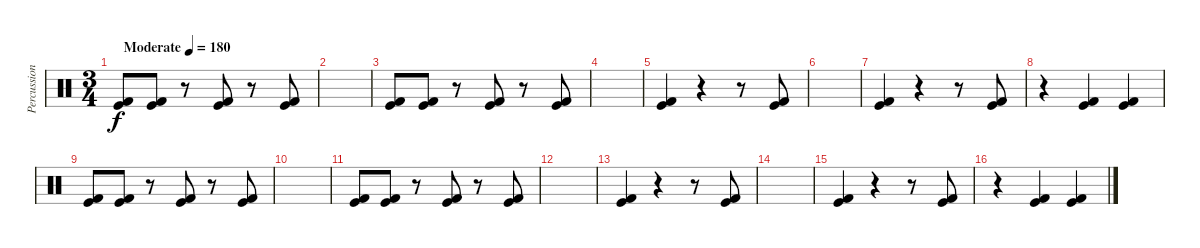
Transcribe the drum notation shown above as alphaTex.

\track ("Percussion" "Percussion") {instrument percussion}
\staff {score}
\articulation defaults
\ts (3 4)
\tempo (180 "Moderate")
\clef neutral
\ks c
("Kick (hit) 2" "Kick (hit)").8{dy f} ("Kick (hit) 2" "Kick (hit)").8 r.8 ("Kick (hit) 2" "Kick (hit)").8 r.8 ("Kick (hit) 2" "Kick (hit)").8 |
|
("Kick (hit) 2" "Kick (hit)").8 ("Kick (hit) 2" "Kick (hit)").8 r.8 ("Kick (hit) 2" "Kick (hit)").8 r.8 ("Kick (hit) 2" "Kick (hit)").8 |
|
("Kick (hit) 2" "Kick (hit)").4 r.4 r.8 ("Kick (hit) 2" "Kick (hit)").8 |
|
("Kick (hit) 2" "Kick (hit)").4 r.4 r.8 ("Kick (hit) 2" "Kick (hit)").8 |
r.4 ("Kick (hit) 2" "Kick (hit)").4 ("Kick (hit) 2" "Kick (hit)").4 |
("Kick (hit) 2" "Kick (hit)").8 ("Kick (hit) 2" "Kick (hit)").8 r.8 ("Kick (hit) 2" "Kick (hit)").8 r.8 ("Kick (hit) 2" "Kick (hit)").8 |
|
("Kick (hit) 2" "Kick (hit)").8 ("Kick (hit) 2" "Kick (hit)").8 r.8 ("Kick (hit) 2" "Kick (hit)").8 r.8 ("Kick (hit) 2" "Kick (hit)").8 |
|
("Kick (hit) 2" "Kick (hit)").4 r.4 r.8 ("Kick (hit) 2" "Kick (hit)").8 |
|
("Kick (hit) 2" "Kick (hit)").4 r.4 r.8 ("Kick (hit) 2" "Kick (hit)").8 |
r.4 ("Kick (hit) 2" "Kick (hit)").4 ("Kick (hit) 2" "Kick (hit)").4
